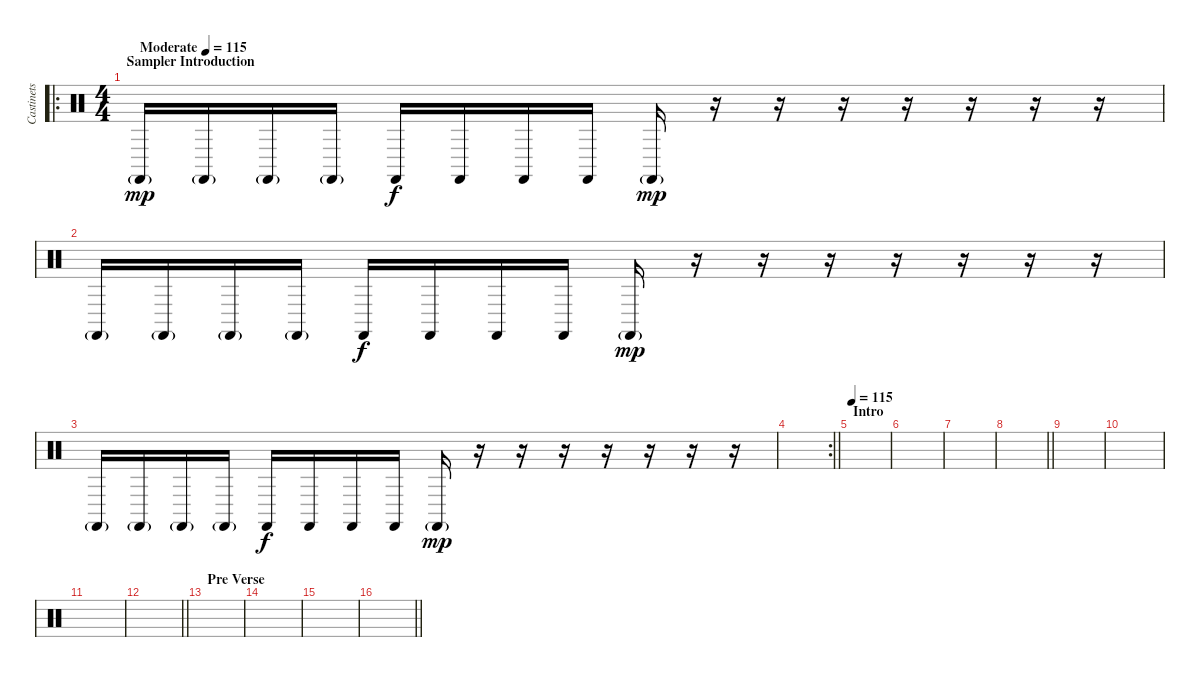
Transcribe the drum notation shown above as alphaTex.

\track ("Castinets" "Castinets") {instrument percussion}
\staff {score}
\articulation defaults
\ro
\ts (4 4)
\section ("" "Sampler Introduction")
\tempo (115 "Moderate")
\tempo 102
\tempo (115 "Moderate")
\clef neutral
\ks c "Castanets (hit)"{g}.16{dy mp} "Castanets (hit)"{g}.16 "Castanets (hit)"{g}.16 "Castanets (hit)"{g}.16 "Castanets (hit)".16{dy f} "Castanets (hit)".16 "Castanets (hit)".16 "Castanets (hit)".16 "Castanets (hit)"{g}.16{dy mp}
r.16 r.16 r.16 r.16 r.16 r.16 r.16 |
"Castanets (hit)"{g}.16 "Castanets (hit)"{g}.16 "Castanets (hit)"{g}.16 "Castanets (hit)"{g}.16 "Castanets (hit)".16{dy f} "Castanets (hit)".16 "Castanets (hit)".16 "Castanets (hit)".16 "Castanets (hit)"{g}.16{dy mp} r.16 r.16 r.16 r.16 r.16 r.16 r.16 |
"Castanets (hit)"{g}.16 "Castanets (hit)"{g}.16 "Castanets (hit)"{g}.16 "Castanets (hit)"{g}.16 "Castanets (hit)".16{dy f} "Castanets (hit)".16 "Castanets (hit)".16 "Castanets (hit)".16 "Castanets (hit)"{g}.16{dy mp} r.16 r.16 r.16 r.16 r.16 r.16 r.16 |
\rc 2
\barLineRight lightlight
|
\section ("" "Intro")
\tempo 115
|
|
|
\barLineRight lightlight
|
\section ("" "")
|
|
|
\barLineRight lightlight
|
\section ("" "Pre Verse")
|
|
|
\barLineRight lightlight
